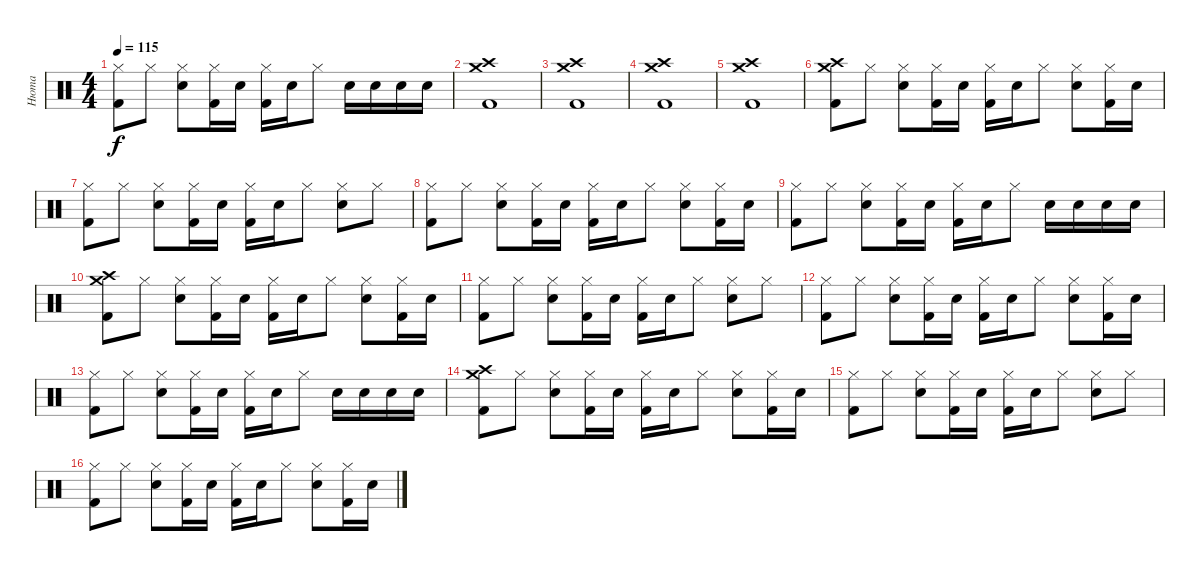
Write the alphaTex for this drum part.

\track ("Нюта" "Нюта") {instrument percussion}
\staff {score}
\articulation defaults
\ts (4 4)
\tempo 115
\clef neutral
\ks c
("Hi-Hat (closed)" "Kick (hit) 2").8{dy f} "Hi-Hat (closed)".8 ("Hi-Hat (closed)" "Snare (hit) 2").8 ("Hi-Hat (closed)" "Kick (hit) 2").16 "Snare (hit) 2".16 ("Hi-Hat (closed)" "Kick (hit) 2").16 "Snare (hit) 2".16 "Hi-Hat (closed)".8 "Snare (hit) 2".16 "Snare (hit) 2".16 "Snare (hit) 2".16 "Snare (hit) 2".16 |
("Crash high (hit)" "Kick (hit) 2" "Crash medium (hit)").1 |
("Crash high (hit)" "Kick (hit) 2" "Crash medium (hit)").1 |
("Crash high (hit)" "Kick (hit) 2" "Crash medium (hit)").1 |
("Crash high (hit)" "Kick (hit) 2" "Crash medium (hit)").1 |
("Crash medium (hit)" "Crash high (hit)" "Kick (hit) 2").8 "Hi-Hat (closed)".8 ("Hi-Hat (closed)" "Snare (hit) 2").8 ("Hi-Hat (closed)" "Kick (hit) 2").16 "Snare (hit) 2".16 ("Hi-Hat (closed)" "Kick (hit) 2").16 "Snare (hit) 2".16 "Hi-Hat (closed)".8 ("Hi-Hat (closed)" "Snare (hit) 2").8 ("Hi-Hat (closed)" "Kick (hit) 2").16 "Snare (hit) 2".16 |
("Hi-Hat (closed)" "Kick (hit) 2").8 "Hi-Hat (closed)".8 ("Hi-Hat (closed)" "Snare (hit) 2").8 ("Hi-Hat (closed)" "Kick (hit) 2").16 "Snare (hit) 2".16 ("Hi-Hat (closed)" "Kick (hit) 2").16 "Snare (hit) 2".16 "Hi-Hat (closed)".8 ("Hi-Hat (closed)" "Snare (hit) 2").8 "Hi-Hat (closed)".8 |
("Hi-Hat (closed)" "Kick (hit) 2").8 "Hi-Hat (closed)".8 ("Hi-Hat (closed)" "Snare (hit) 2").8 ("Hi-Hat (closed)" "Kick (hit) 2").16 "Snare (hit) 2".16 ("Hi-Hat (closed)" "Kick (hit) 2").16 "Snare (hit) 2".16 "Hi-Hat (closed)".8 ("Hi-Hat (closed)" "Snare (hit) 2").8 ("Hi-Hat (closed)" "Kick (hit) 2").16 "Snare (hit) 2".16 |
("Hi-Hat (closed)" "Kick (hit) 2").8 "Hi-Hat (closed)".8 ("Hi-Hat (closed)" "Snare (hit) 2").8 ("Hi-Hat (closed)" "Kick (hit) 2").16 "Snare (hit) 2".16 ("Hi-Hat (closed)" "Kick (hit) 2").16 "Snare (hit) 2".16 "Hi-Hat (closed)".8 "Snare (hit) 2".16 "Snare (hit) 2".16 "Snare (hit) 2".16 "Snare (hit) 2".16 |
("Crash medium (hit)" "Crash high (hit)" "Kick (hit) 2").8 "Hi-Hat (closed)".8 ("Hi-Hat (closed)" "Snare (hit) 2").8 ("Hi-Hat (closed)" "Kick (hit) 2").16 "Snare (hit) 2".16 ("Hi-Hat (closed)" "Kick (hit) 2").16 "Snare (hit) 2".16 "Hi-Hat (closed)".8 ("Hi-Hat (closed)" "Snare (hit) 2").8 ("Hi-Hat (closed)" "Kick (hit) 2").16 "Snare (hit) 2".16 |
("Hi-Hat (closed)" "Kick (hit) 2").8 "Hi-Hat (closed)".8 ("Hi-Hat (closed)" "Snare (hit) 2").8 ("Hi-Hat (closed)" "Kick (hit) 2").16 "Snare (hit) 2".16 ("Hi-Hat (closed)" "Kick (hit) 2").16 "Snare (hit) 2".16 "Hi-Hat (closed)".8 ("Hi-Hat (closed)" "Snare (hit) 2").8 "Hi-Hat (closed)".8 |
("Hi-Hat (closed)" "Kick (hit) 2").8 "Hi-Hat (closed)".8 ("Hi-Hat (closed)" "Snare (hit) 2").8 ("Hi-Hat (closed)" "Kick (hit) 2").16 "Snare (hit) 2".16 ("Hi-Hat (closed)" "Kick (hit) 2").16 "Snare (hit) 2".16 "Hi-Hat (closed)".8 ("Hi-Hat (closed)" "Snare (hit) 2").8 ("Hi-Hat (closed)" "Kick (hit) 2").16 "Snare (hit) 2".16 |
("Hi-Hat (closed)" "Kick (hit) 2").8 "Hi-Hat (closed)".8 ("Hi-Hat (closed)" "Snare (hit) 2").8 ("Hi-Hat (closed)" "Kick (hit) 2").16 "Snare (hit) 2".16 ("Hi-Hat (closed)" "Kick (hit) 2").16 "Snare (hit) 2".16 "Hi-Hat (closed)".8 "Snare (hit) 2".16 "Snare (hit) 2".16 "Snare (hit) 2".16 "Snare (hit) 2".16 |
("Crash medium (hit)" "Crash high (hit)" "Kick (hit) 2").8 "Hi-Hat (closed)".8 ("Hi-Hat (closed)" "Snare (hit) 2").8 ("Hi-Hat (closed)" "Kick (hit) 2").16 "Snare (hit) 2".16 ("Hi-Hat (closed)" "Kick (hit) 2").16 "Snare (hit) 2".16 "Hi-Hat (closed)".8 ("Hi-Hat (closed)" "Snare (hit) 2").8 ("Hi-Hat (closed)" "Kick (hit) 2").16 "Snare (hit) 2".16 |
("Hi-Hat (closed)" "Kick (hit) 2").8 "Hi-Hat (closed)".8 ("Hi-Hat (closed)" "Snare (hit) 2").8 ("Hi-Hat (closed)" "Kick (hit) 2").16 "Snare (hit) 2".16 ("Hi-Hat (closed)" "Kick (hit) 2").16 "Snare (hit) 2".16 "Hi-Hat (closed)".8 ("Hi-Hat (closed)" "Snare (hit) 2").8 "Hi-Hat (closed)".8 |
("Hi-Hat (closed)" "Kick (hit) 2").8 "Hi-Hat (closed)".8 ("Hi-Hat (closed)" "Snare (hit) 2").8 ("Hi-Hat (closed)" "Kick (hit) 2").16 "Snare (hit) 2".16 ("Hi-Hat (closed)" "Kick (hit) 2").16 "Snare (hit) 2".16 "Hi-Hat (closed)".8 ("Hi-Hat (closed)" "Snare (hit) 2").8 ("Hi-Hat (closed)" "Kick (hit) 2").16 "Snare (hit) 2".16
